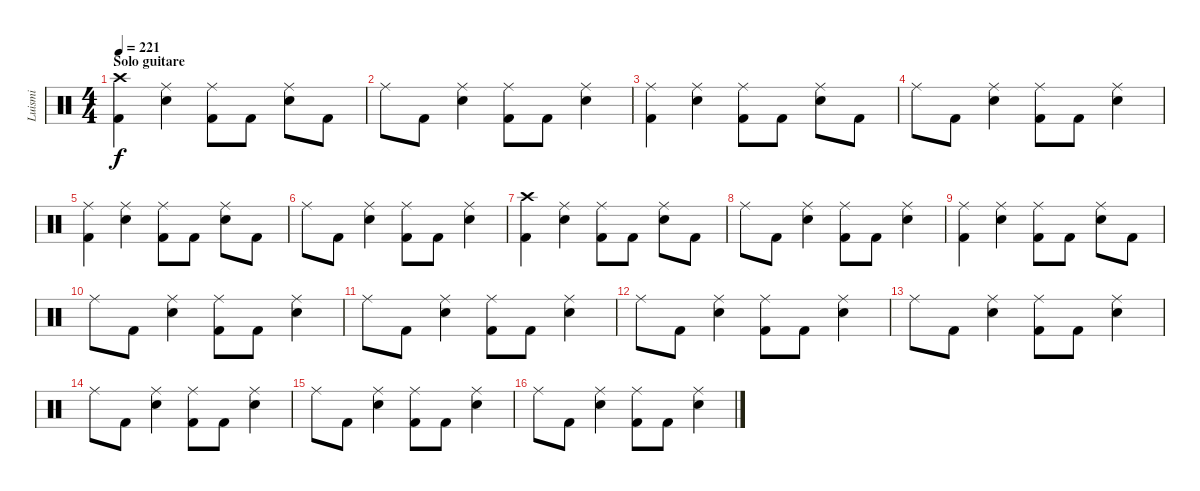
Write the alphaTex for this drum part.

\track ("Luismi" "Luismi") {instrument percussion}
\staff {score}
\articulation defaults
\ts (4 4)
\section ("" "Solo guitare")
\tempo 221
\clef neutral
\ks c
("Crash high (hit)" "Kick (hit) 2").4{dy f} ("Ride (middle)" "Snare (hit) 2").4 ("Ride (middle)" "Kick (hit) 2").8 "Kick (hit) 2".8 ("Ride (middle)" "Snare (hit) 2").8 "Kick (hit) 2".8 |
"Ride (middle)".8 "Kick (hit) 2".8 ("Ride (middle)" "Snare (hit) 2").4 ("Ride (middle)" "Kick (hit) 2").8 "Kick (hit) 2".8 ("Ride (middle)" "Snare (hit) 2").4 |
("Ride (middle)" "Kick (hit) 2").4 ("Ride (middle)" "Snare (hit) 2").4 ("Ride (middle)" "Kick (hit) 2").8 "Kick (hit) 2".8 ("Ride (middle)" "Snare (hit) 2").8 "Kick (hit) 2".8 |
"Ride (middle)".8 "Kick (hit) 2".8 ("Ride (middle)" "Snare (hit) 2").4 ("Ride (middle)" "Kick (hit) 2").8 "Kick (hit) 2".8 ("Ride (middle)" "Snare (hit) 2").4 |
("Ride (middle)" "Kick (hit) 2").4 ("Ride (middle)" "Snare (hit) 2").4 ("Ride (middle)" "Kick (hit) 2").8 "Kick (hit) 2".8 ("Ride (middle)" "Snare (hit) 2").8 "Kick (hit) 2".8 |
"Ride (middle)".8 "Kick (hit) 2".8 ("Ride (middle)" "Snare (hit) 2").4 ("Ride (middle)" "Kick (hit) 2").8 "Kick (hit) 2".8 ("Ride (middle)" "Snare (hit) 2").4 |
("Crash high (hit)" "Kick (hit) 2").4 ("Ride (middle)" "Snare (hit) 2").4 ("Ride (middle)" "Kick (hit) 2").8 "Kick (hit) 2".8 ("Ride (middle)" "Snare (hit) 2").8 "Kick (hit) 2".8 |
"Ride (middle)".8 "Kick (hit) 2".8 ("Ride (middle)" "Snare (hit) 2").4 ("Ride (middle)" "Kick (hit) 2").8 "Kick (hit) 2".8 ("Ride (middle)" "Snare (hit) 2").4 |
("Ride (middle)" "Kick (hit) 2").4 ("Ride (middle)" "Snare (hit) 2").4 ("Ride (middle)" "Kick (hit) 2").8 "Kick (hit) 2".8 ("Ride (middle)" "Snare (hit) 2").8 "Kick (hit) 2".8 |
"Ride (middle)".8 "Kick (hit) 2".8 ("Ride (middle)" "Snare (hit) 2").4 ("Ride (middle)" "Kick (hit) 2").8 "Kick (hit) 2".8 ("Ride (middle)" "Snare (hit) 2").4 |
"Ride (middle)".8 "Kick (hit) 2".8 ("Ride (middle)" "Snare (hit) 2").4 ("Ride (middle)" "Kick (hit) 2").8 "Kick (hit) 2".8 ("Ride (middle)" "Snare (hit) 2").4 |
"Ride (middle)".8 "Kick (hit) 2".8 ("Ride (middle)" "Snare (hit) 2").4 ("Ride (middle)" "Kick (hit) 2").8 "Kick (hit) 2".8 ("Ride (middle)" "Snare (hit) 2").4 |
"Ride (middle)".8 "Kick (hit) 2".8 ("Ride (middle)" "Snare (hit) 2").4 ("Ride (middle)" "Kick (hit) 2").8 "Kick (hit) 2".8 ("Ride (middle)" "Snare (hit) 2").4 |
"Ride (middle)".8 "Kick (hit) 2".8 ("Ride (middle)" "Snare (hit) 2").4 ("Ride (middle)" "Kick (hit) 2").8 "Kick (hit) 2".8 ("Ride (middle)" "Snare (hit) 2").4 |
"Ride (middle)".8 "Kick (hit) 2".8 ("Ride (middle)" "Snare (hit) 2").4 ("Ride (middle)" "Kick (hit) 2").8 "Kick (hit) 2".8 ("Ride (middle)" "Snare (hit) 2").4 |
"Ride (middle)".8 "Kick (hit) 2".8 ("Ride (middle)" "Snare (hit) 2").4 ("Ride (middle)" "Kick (hit) 2").8 "Kick (hit) 2".8 ("Ride (middle)" "Snare (hit) 2").4
